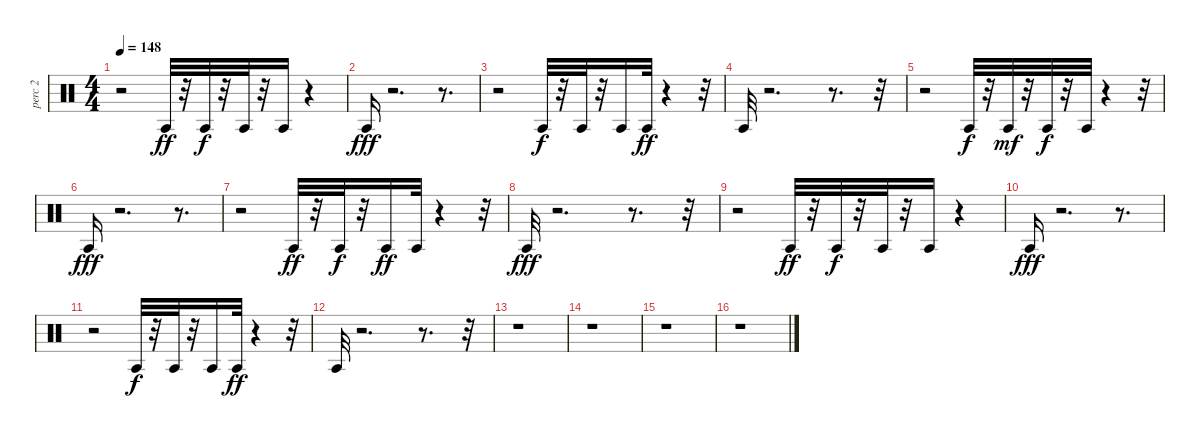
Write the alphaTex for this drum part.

\track ("perc 2              " "perc 2    ") {instrument percussion}
\staff {score}
\articulation defaults
\ts (4 4)
\tempo 148
\clef neutral
\ks c
r.2{dy fff} "Agogo tow (hit)".32{dy ff} r.32 "Agogo tow (hit)".32{dy f} r.32 "Agogo tow (hit)".32 r.32 "Agogo tow (hit)".16 r.4 |
"Agogo tow (hit)".16{dy fff} r.2{d} r.8{d} |
r.2 "Agogo tow (hit)".32{dy f} r.32 "Agogo tow (hit)".32 r.32 "Agogo tow (hit)".16 "Agogo tow (hit)".32{dy ff} r.4 r.32 |
"Agogo tow (hit)".32 r.2{d} r.8{d} r.32 |
r.2 "Agogo tow (hit)".32{dy f} r.32 "Agogo tow (hit)".32{dy mf} r.32 "Agogo tow (hit)".32{dy f} r.32 "Agogo tow (hit)".32 r.4 r.32 |
"Agogo tow (hit)".16{dy fff} r.2{d} r.8{d} |
r.2 "Agogo tow (hit)".32{dy ff} r.32 "Agogo tow (hit)".32{dy f} r.32 "Agogo tow (hit)".16{dy ff} "Agogo tow (hit)".32 r.4 r.32 |
"Agogo tow (hit)".32{dy fff} r.2{d} r.8{d} r.32 |
r.2 "Agogo tow (hit)".32{dy ff} r.32 "Agogo tow (hit)".32{dy f} r.32 "Agogo tow (hit)".32 r.32 "Agogo tow (hit)".16 r.4 |
"Agogo tow (hit)".16{dy fff} r.2{d} r.8{d} |
r.2 "Agogo tow (hit)".32{dy f} r.32 "Agogo tow (hit)".32 r.32 "Agogo tow (hit)".16 "Agogo tow (hit)".32{dy ff} r.4 r.32 |
"Agogo tow (hit)".32 r.2{d} r.8{d} r.32 |
r.1 |
r.1 |
r.1 |
r.1
